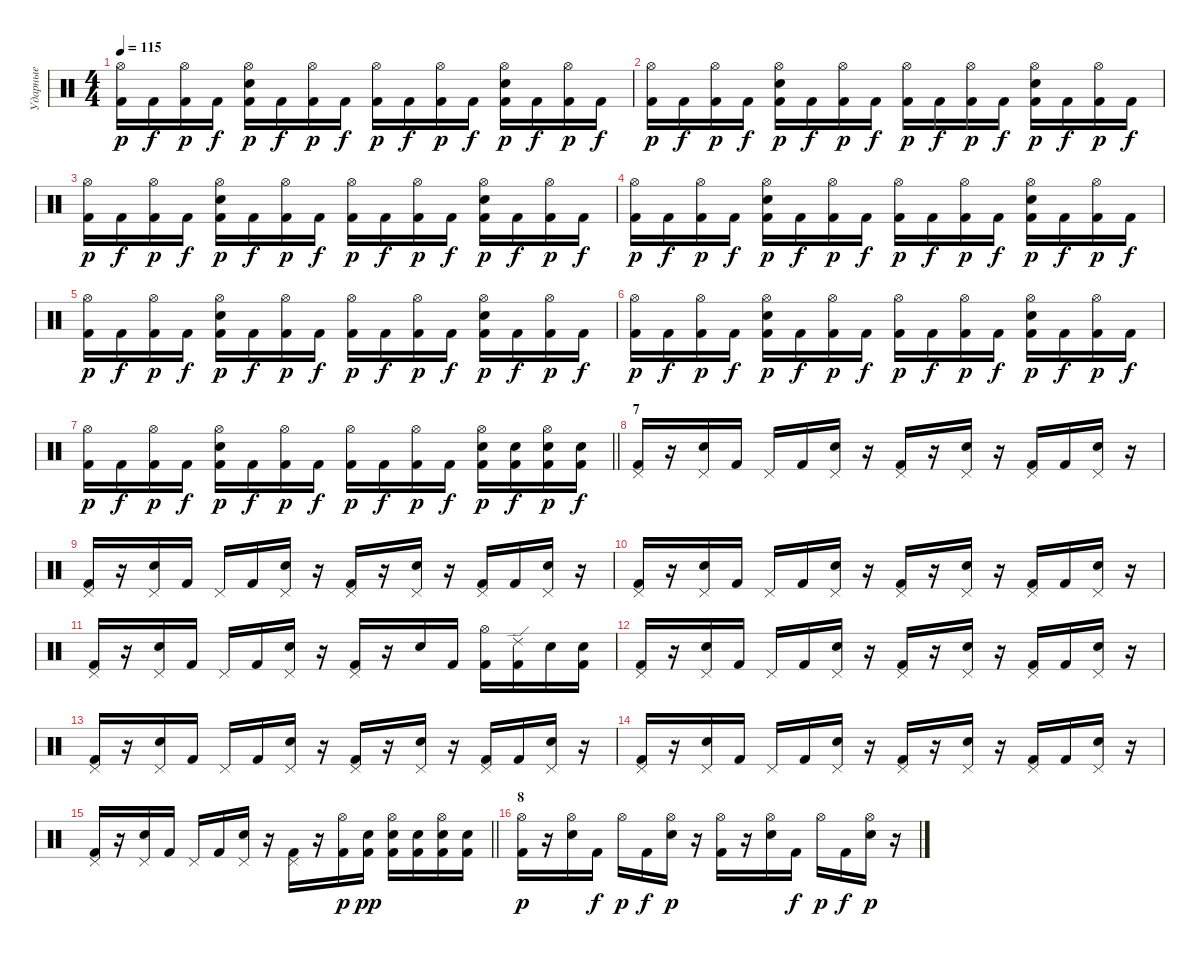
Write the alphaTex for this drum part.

\track ("Ударные" "Ударные") {instrument percussion}
\staff {score}
\articulation defaults
\ts (4 4)
\tempo 115
\clef neutral
\ks c
("Hi-Hat (open)" "Kick (hit) 2").16{dy p} "Kick (hit) 2".16{dy f} ("Hi-Hat (open)" "Kick (hit) 2").16{dy p} "Kick (hit) 2".16{dy f} ("Hi-Hat (open)" "Snare (hit) 2" "Kick (hit) 2").16{dy p} "Kick (hit) 2".16{dy f} ("Hi-Hat (open)" "Kick (hit) 2").16{dy p} "Kick (hit) 2".16{dy f} ("Hi-Hat (open)" "Kick (hit) 2").16{dy p} "Kick (hit) 2".16{dy f} ("Hi-Hat (open)" "Kick (hit) 2").16{dy p} "Kick (hit) 2".16{dy f} ("Hi-Hat (open)" "Snare (hit) 2" "Kick (hit) 2").16{dy p} "Kick (hit) 2".16{dy f} ("Hi-Hat (open)" "Kick (hit) 2").16{dy p} "Kick (hit) 2".16{dy f} |
("Hi-Hat (open)" "Kick (hit) 2").16{dy p} "Kick (hit) 2".16{dy f} ("Hi-Hat (open)" "Kick (hit) 2").16{dy p} "Kick (hit) 2".16{dy f} ("Hi-Hat (open)" "Snare (hit) 2" "Kick (hit) 2").16{dy p} "Kick (hit) 2".16{dy f} ("Hi-Hat (open)" "Kick (hit) 2").16{dy p} "Kick (hit) 2".16{dy f} ("Hi-Hat (open)" "Kick (hit) 2").16{dy p} "Kick (hit) 2".16{dy f} ("Hi-Hat (open)" "Kick (hit) 2").16{dy p} "Kick (hit) 2".16{dy f} ("Hi-Hat (open)" "Snare (hit) 2" "Kick (hit) 2").16{dy p} "Kick (hit) 2".16{dy f} ("Hi-Hat (open)" "Kick (hit) 2").16{dy p} "Kick (hit) 2".16{dy f} |
("Hi-Hat (open)" "Kick (hit) 2").16{dy p} "Kick (hit) 2".16{dy f} ("Hi-Hat (open)" "Kick (hit) 2").16{dy p} "Kick (hit) 2".16{dy f} ("Hi-Hat (open)" "Snare (hit) 2" "Kick (hit) 2").16{dy p} "Kick (hit) 2".16{dy f} ("Hi-Hat (open)" "Kick (hit) 2").16{dy p} "Kick (hit) 2".16{dy f} ("Hi-Hat (open)" "Kick (hit) 2").16{dy p} "Kick (hit) 2".16{dy f} ("Hi-Hat (open)" "Kick (hit) 2").16{dy p} "Kick (hit) 2".16{dy f} ("Hi-Hat (open)" "Snare (hit) 2" "Kick (hit) 2").16{dy p} "Kick (hit) 2".16{dy f} ("Hi-Hat (open)" "Kick (hit) 2").16{dy p} "Kick (hit) 2".16{dy f} |
("Hi-Hat (open)" "Kick (hit) 2").16{dy p} "Kick (hit) 2".16{dy f} ("Hi-Hat (open)" "Kick (hit) 2").16{dy p} "Kick (hit) 2".16{dy f} ("Hi-Hat (open)" "Snare (hit) 2" "Kick (hit) 2").16{dy p} "Kick (hit) 2".16{dy f} ("Hi-Hat (open)" "Kick (hit) 2").16{dy p} "Kick (hit) 2".16{dy f} ("Hi-Hat (open)" "Kick (hit) 2").16{dy p} "Kick (hit) 2".16{dy f} ("Hi-Hat (open)" "Kick (hit) 2").16{dy p} "Kick (hit) 2".16{dy f} ("Hi-Hat (open)" "Snare (hit) 2" "Kick (hit) 2").16{dy p} "Kick (hit) 2".16{dy f} ("Hi-Hat (open)" "Kick (hit) 2").16{dy p} "Kick (hit) 2".16{dy f} |
("Hi-Hat (open)" "Kick (hit) 2").16{dy p} "Kick (hit) 2".16{dy f} ("Hi-Hat (open)" "Kick (hit) 2").16{dy p} "Kick (hit) 2".16{dy f} ("Hi-Hat (open)" "Snare (hit) 2" "Kick (hit) 2").16{dy p} "Kick (hit) 2".16{dy f} ("Hi-Hat (open)" "Kick (hit) 2").16{dy p} "Kick (hit) 2".16{dy f} ("Hi-Hat (open)" "Kick (hit) 2").16{dy p} "Kick (hit) 2".16{dy f} ("Hi-Hat (open)" "Kick (hit) 2").16{dy p} "Kick (hit) 2".16{dy f} ("Hi-Hat (open)" "Snare (hit) 2" "Kick (hit) 2").16{dy p} "Kick (hit) 2".16{dy f} ("Hi-Hat (open)" "Kick (hit) 2").16{dy p} "Kick (hit) 2".16{dy f} |
("Hi-Hat (open)" "Kick (hit) 2").16{dy p} "Kick (hit) 2".16{dy f} ("Hi-Hat (open)" "Kick (hit) 2").16{dy p} "Kick (hit) 2".16{dy f} ("Hi-Hat (open)" "Snare (hit) 2" "Kick (hit) 2").16{dy p} "Kick (hit) 2".16{dy f} ("Hi-Hat (open)" "Kick (hit) 2").16{dy p} "Kick (hit) 2".16{dy f} ("Hi-Hat (open)" "Kick (hit) 2").16{dy p} "Kick (hit) 2".16{dy f} ("Hi-Hat (open)" "Kick (hit) 2").16{dy p} "Kick (hit) 2".16{dy f} ("Hi-Hat (open)" "Snare (hit) 2" "Kick (hit) 2").16{dy p} "Kick (hit) 2".16{dy f} ("Hi-Hat (open)" "Kick (hit) 2").16{dy p} "Kick (hit) 2".16{dy f} |
\barLineRight lightlight
("Hi-Hat (open)" "Kick (hit) 2").16{dy p} "Kick (hit) 2".16{dy f} ("Hi-Hat (open)" "Kick (hit) 2").16{dy p} "Kick (hit) 2".16{dy f} ("Hi-Hat (open)" "Snare (hit) 2" "Kick (hit) 2").16{dy p} "Kick (hit) 2".16{dy f} ("Hi-Hat (open)" "Kick (hit) 2").16{dy p} "Kick (hit) 2".16{dy f} ("Hi-Hat (open)" "Kick (hit) 2").16{dy p} "Kick (hit) 2".16{dy f} ("Hi-Hat (open)" "Kick (hit) 2").16{dy p} "Kick (hit) 2".16{dy f} ("Hi-Hat (open)" "Snare (hit) 2" "Kick (hit) 2").16{dy p} ("Snare (hit) 2" "Kick (hit) 2").16{dy f} ("Hi-Hat (open)" "Snare (hit) 2" "Kick (hit) 2").16{dy p} ("Snare (hit) 2" "Kick (hit) 2").16{dy f} |
\section ("" "7")
("Pedal Hi-Hat (hit)" "Kick (hit) 2").16 r.16 ("Pedal Hi-Hat (hit)" "Snare (hit) 2").16 "Kick (hit) 2".16 "Pedal Hi-Hat (hit)".16 "Kick (hit) 2".16 ("Pedal Hi-Hat (hit)" "Snare (hit) 2").16 r.16 ("Pedal Hi-Hat (hit)" "Kick (hit) 2").16 r.16 ("Pedal Hi-Hat (hit)" "Snare (hit) 2").16 r.16 ("Pedal Hi-Hat (hit)" "Kick (hit) 2").16 "Kick (hit) 2".16 ("Pedal Hi-Hat (hit)" "Snare (hit) 2").16 r.16 |
("Pedal Hi-Hat (hit)" "Kick (hit) 2").16 r.16 ("Pedal Hi-Hat (hit)" "Snare (hit) 2").16 "Kick (hit) 2".16 "Pedal Hi-Hat (hit)".16 "Kick (hit) 2".16 ("Pedal Hi-Hat (hit)" "Snare (hit) 2").16 r.16 ("Pedal Hi-Hat (hit)" "Kick (hit) 2").16 r.16 ("Pedal Hi-Hat (hit)" "Snare (hit) 2").16 r.16 ("Pedal Hi-Hat (hit)" "Kick (hit) 2").16 "Kick (hit) 2".16 ("Pedal Hi-Hat (hit)" "Snare (hit) 2").16 r.16 |
("Pedal Hi-Hat (hit)" "Kick (hit) 2").16 r.16 ("Pedal Hi-Hat (hit)" "Snare (hit) 2").16 "Kick (hit) 2".16 "Pedal Hi-Hat (hit)".16 "Kick (hit) 2".16 ("Pedal Hi-Hat (hit)" "Snare (hit) 2").16 r.16 ("Pedal Hi-Hat (hit)" "Kick (hit) 2").16 r.16 ("Pedal Hi-Hat (hit)" "Snare (hit) 2").16 r.16 ("Pedal Hi-Hat (hit)" "Kick (hit) 2").16 "Kick (hit) 2".16 ("Pedal Hi-Hat (hit)" "Snare (hit) 2").16 r.16 |
("Pedal Hi-Hat (hit)" "Kick (hit) 2").16 r.16 ("Pedal Hi-Hat (hit)" "Snare (hit) 2").16 "Kick (hit) 2".16 "Pedal Hi-Hat (hit)".16 "Kick (hit) 2".16 ("Pedal Hi-Hat (hit)" "Snare (hit) 2").16 r.16 ("Pedal Hi-Hat (hit)" "Kick (hit) 2").16 r.16 "Snare (hit) 2".16 "Kick (hit) 2".16 ("Hi-Hat (open)" "Kick (hit) 2").16 ("Ride (edge) 2" "Kick (hit) 2").16 "Snare (hit) 2".16 ("Snare (hit) 2" "Kick (hit) 2").16 |
("Pedal Hi-Hat (hit)" "Kick (hit) 2").16 r.16 ("Pedal Hi-Hat (hit)" "Snare (hit) 2").16 "Kick (hit) 2".16 "Pedal Hi-Hat (hit)".16 "Kick (hit) 2".16 ("Pedal Hi-Hat (hit)" "Snare (hit) 2").16 r.16 ("Pedal Hi-Hat (hit)" "Kick (hit) 2").16 r.16 ("Pedal Hi-Hat (hit)" "Snare (hit) 2").16 r.16 ("Pedal Hi-Hat (hit)" "Kick (hit) 2").16 "Kick (hit) 2".16 ("Pedal Hi-Hat (hit)" "Snare (hit) 2").16 r.16 |
("Pedal Hi-Hat (hit)" "Kick (hit) 2").16 r.16 ("Pedal Hi-Hat (hit)" "Snare (hit) 2").16 "Kick (hit) 2".16 "Pedal Hi-Hat (hit)".16 "Kick (hit) 2".16 ("Pedal Hi-Hat (hit)" "Snare (hit) 2").16 r.16 ("Pedal Hi-Hat (hit)" "Kick (hit) 2").16 r.16 ("Pedal Hi-Hat (hit)" "Snare (hit) 2").16 r.16 ("Pedal Hi-Hat (hit)" "Kick (hit) 2").16 "Kick (hit) 2".16 ("Pedal Hi-Hat (hit)" "Snare (hit) 2").16 r.16 |
("Pedal Hi-Hat (hit)" "Kick (hit) 2").16 r.16 ("Pedal Hi-Hat (hit)" "Snare (hit) 2").16 "Kick (hit) 2".16 "Pedal Hi-Hat (hit)".16 "Kick (hit) 2".16 ("Pedal Hi-Hat (hit)" "Snare (hit) 2").16 r.16 ("Pedal Hi-Hat (hit)" "Kick (hit) 2").16 r.16 ("Pedal Hi-Hat (hit)" "Snare (hit) 2").16 r.16 ("Pedal Hi-Hat (hit)" "Kick (hit) 2").16 "Kick (hit) 2".16 ("Pedal Hi-Hat (hit)" "Snare (hit) 2").16 r.16 |
\barLineRight lightlight
("Pedal Hi-Hat (hit)" "Kick (hit) 2").16 r.16 ("Pedal Hi-Hat (hit)" "Snare (hit) 2").16 "Kick (hit) 2".16 "Pedal Hi-Hat (hit)".16 "Kick (hit) 2".16 ("Pedal Hi-Hat (hit)" "Snare (hit) 2").16 r.16 ("Pedal Hi-Hat (hit)" "Kick (hit) 2").16 r.16 ("Hi-Hat (open)" "Kick (hit) 2").16{dy p} ("Snare (hit) 2" "Kick (hit) 2").16{dy pp} ("Hi-Hat (open)" "Snare (hit) 2" "Kick (hit) 2").16 ("Snare (hit) 2" "Kick (hit) 2").16 ("Hi-Hat (open)" "Snare (hit) 2" "Kick (hit) 2").16 ("Snare (hit) 2" "Kick (hit) 2").16 |
\section ("" "8")
("Hi-Hat (open)" "Kick (hit) 2").16{dy p} r.16 ("Hi-Hat (open)" "Snare (hit) 2").16 "Kick (hit) 2".16{dy f} "Hi-Hat (open)".16{dy p} "Kick (hit) 2".16{dy f} ("Hi-Hat (open)" "Snare (hit) 2").16{dy p} r.16 ("Hi-Hat (open)" "Kick (hit) 2").16 r.16 ("Hi-Hat (open)" "Snare (hit) 2").16 "Kick (hit) 2".16{dy f} "Hi-Hat (open)".16{dy p} "Kick (hit) 2".16{dy f} ("Hi-Hat (open)" "Snare (hit) 2").16{dy p} r.16
